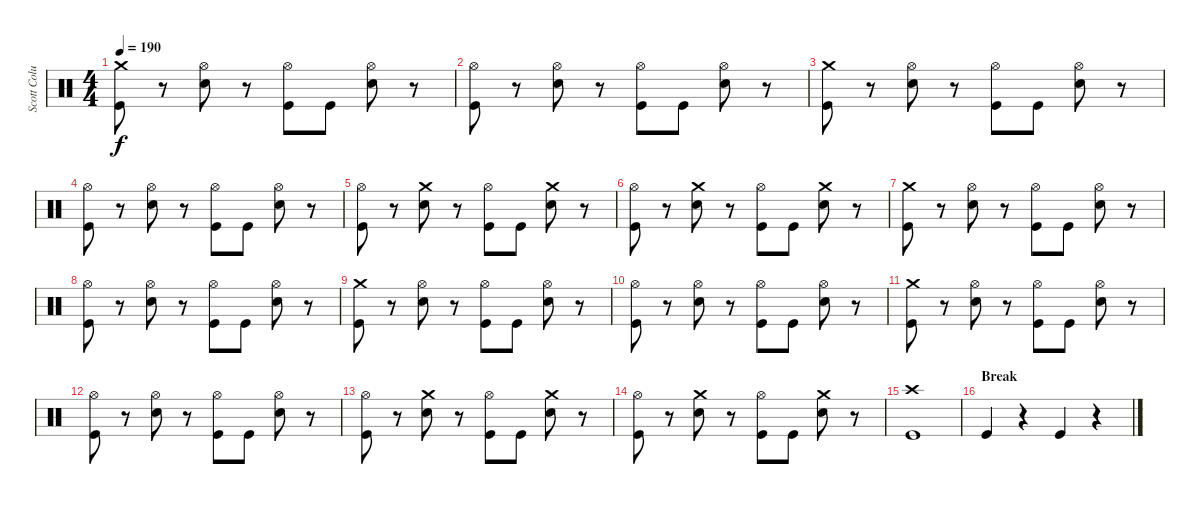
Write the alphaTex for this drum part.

\track ("Scott Columbus" "Scott Colu") {instrument percussion}
\staff {score}
\articulation defaults
\ts (4 4)
\tempo 190
\clef neutral
\ks c
("Crash medium (hit)" "Kick (hit)").8{dy f} r.8 ("Hi-Hat (open)" "Snare (hit) 2").8 r.8 ("Hi-Hat (open)" "Kick (hit)").8 "Kick (hit)".8 ("Hi-Hat (open)" "Snare (hit) 2").8 r.8 |
("Hi-Hat (open)" "Kick (hit)").8 r.8 ("Hi-Hat (open)" "Snare (hit) 2").8 r.8 ("Hi-Hat (open)" "Kick (hit)").8 "Kick (hit)".8 ("Hi-Hat (open)" "Snare (hit) 2").8 r.8 |
("Crash medium (hit)" "Kick (hit)").8 r.8 ("Hi-Hat (open)" "Snare (hit) 2").8 r.8 ("Hi-Hat (open)" "Kick (hit)").8 "Kick (hit)".8 ("Hi-Hat (open)" "Snare (hit) 2").8 r.8 |
("Hi-Hat (open)" "Kick (hit)").8 r.8 ("Hi-Hat (open)" "Snare (hit) 2").8 r.8 ("Hi-Hat (open)" "Kick (hit)").8 "Kick (hit)".8 ("Hi-Hat (open)" "Snare (hit) 2").8 r.8 |
("Hi-Hat (open)" "Kick (hit)").8 r.8 ("Crash medium (hit)" "Snare (hit) 2").8 r.8 ("Hi-Hat (open)" "Kick (hit)").8 "Kick (hit)".8 ("Crash medium (hit)" "Snare (hit) 2").8 r.8 |
("Hi-Hat (open)" "Kick (hit)").8 r.8 ("Crash medium (hit)" "Snare (hit) 2").8 r.8 ("Hi-Hat (open)" "Kick (hit)").8 "Kick (hit)".8 ("Crash medium (hit)" "Snare (hit) 2").8 r.8 |
("Crash medium (hit)" "Kick (hit)").8 r.8 ("Hi-Hat (open)" "Snare (hit) 2").8 r.8 ("Hi-Hat (open)" "Kick (hit)").8 "Kick (hit)".8 ("Hi-Hat (open)" "Snare (hit) 2").8 r.8 |
("Hi-Hat (open)" "Kick (hit)").8 r.8 ("Hi-Hat (open)" "Snare (hit) 2").8 r.8 ("Hi-Hat (open)" "Kick (hit)").8 "Kick (hit)".8 ("Hi-Hat (open)" "Snare (hit) 2").8 r.8 |
("Crash medium (hit)" "Kick (hit)").8 r.8 ("Hi-Hat (open)" "Snare (hit) 2").8 r.8 ("Hi-Hat (open)" "Kick (hit)").8 "Kick (hit)".8 ("Hi-Hat (open)" "Snare (hit) 2").8 r.8 |
("Hi-Hat (open)" "Kick (hit)").8 r.8 ("Hi-Hat (open)" "Snare (hit) 2").8 r.8 ("Hi-Hat (open)" "Kick (hit)").8 "Kick (hit)".8 ("Hi-Hat (open)" "Snare (hit) 2").8 r.8 |
("Crash medium (hit)" "Kick (hit)").8 r.8 ("Hi-Hat (open)" "Snare (hit) 2").8 r.8 ("Hi-Hat (open)" "Kick (hit)").8 "Kick (hit)".8 ("Hi-Hat (open)" "Snare (hit) 2").8 r.8 |
("Hi-Hat (open)" "Kick (hit)").8 r.8 ("Hi-Hat (open)" "Snare (hit) 2").8 r.8 ("Hi-Hat (open)" "Kick (hit)").8 "Kick (hit)".8 ("Hi-Hat (open)" "Snare (hit) 2").8 r.8 |
("Hi-Hat (open)" "Kick (hit)").8 r.8 ("Crash medium (hit)" "Snare (hit) 2").8 r.8 ("Hi-Hat (open)" "Kick (hit)").8 "Kick (hit)".8 ("Crash medium (hit)" "Snare (hit) 2").8 r.8 |
("Hi-Hat (open)" "Kick (hit)").8 r.8 ("Crash medium (hit)" "Snare (hit) 2").8 r.8 ("Hi-Hat (open)" "Kick (hit)").8 "Kick (hit)".8 ("Crash medium (hit)" "Snare (hit) 2").8 r.8 |
("Crash high (hit)" "Kick (hit)").1 |
\section ("" "Break")
"Kick (hit)".4 r.4 "Kick (hit)".4 r.4
